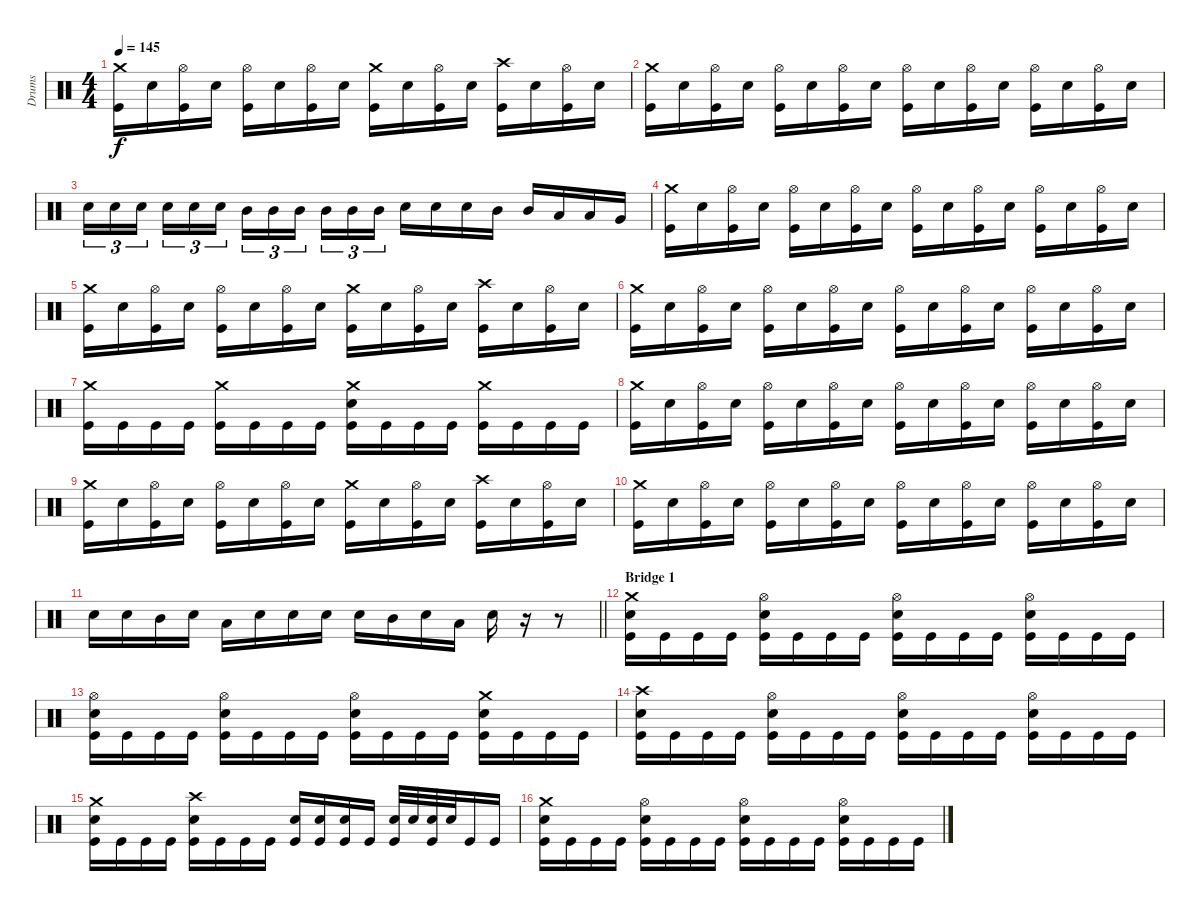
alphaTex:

\track ("Drums" "Drums") {instrument percussion}
\staff {score}
\articulation defaults
\ts (4 4)
\tempo 145
\clef neutral
\ks c
("Crash medium (hit)" "Kick (hit)").16{dy f} "Snare (hit) 2".16 ("Hi-Hat (open)" "Kick (hit)").16 "Snare (hit) 2".16 ("Hi-Hat (open)" "Kick (hit)").16 "Snare (hit) 2".16 ("Hi-Hat (open)" "Kick (hit)").16 "Snare (hit) 2".16 ("Crash medium (hit)" "Kick (hit)").16 "Snare (hit) 2".16 ("Hi-Hat (open)" "Kick (hit)").16 "Snare (hit) 2".16 ("Crash high (hit)" "Kick (hit)").16 "Snare (hit) 2".16 ("Hi-Hat (open)" "Kick (hit)").16 "Snare (hit) 2".16 |
("Crash medium (hit)" "Kick (hit)").16 "Snare (hit) 2".16 ("Hi-Hat (open)" "Kick (hit)").16 "Snare (hit) 2".16 ("Hi-Hat (open)" "Kick (hit)").16 "Snare (hit) 2".16 ("Hi-Hat (open)" "Kick (hit)").16 "Snare (hit) 2".16 ("Hi-Hat (open)" "Kick (hit)").16 "Snare (hit) 2".16 ("Hi-Hat (open)" "Kick (hit)").16 "Snare (hit) 2".16 ("Hi-Hat (open)" "Kick (hit)").16 "Snare (hit) 2".16 ("Hi-Hat (open)" "Kick (hit)").16 "Snare (hit) 2".16 |
"Snare (hit) 2".16{tu (3 2)} "Snare (hit) 2".16{tu (3 2)} "Snare (hit) 2".16{tu (3 2) beam splitsecondary} "Snare (hit) 2".16{tu (3 2)} "Snare (hit) 2".16{tu (3 2)} "Snare (hit) 2".16{tu (3 2)} "Mid Tom (hit)".16{tu (3 2)} "Mid Tom (hit)".16{tu (3 2)} "Mid Tom (hit)".16{tu (3 2) beam splitsecondary} "Mid Tom (hit)".16{tu (3 2)} "Mid Tom (hit)".16{tu (3 2)} "Mid Tom (hit)".16{tu (3 2)} "Snare (hit) 2".16 "Snare (hit) 2".16 "Snare (hit) 2".16 "Mid Tom (hit)".16 "Mid Tom (hit)".16 "Low Tom (hit)".16 "Low Tom (hit)".16 "Very Low Tom (hit)".16 |
("Crash medium (hit)" "Kick (hit)").16 "Snare (hit) 2".16 ("Hi-Hat (open)" "Kick (hit)").16 "Snare (hit) 2".16 ("Hi-Hat (open)" "Kick (hit)").16 "Snare (hit) 2".16 ("Hi-Hat (open)" "Kick (hit)").16 "Snare (hit) 2".16 ("Hi-Hat (open)" "Kick (hit)").16 "Snare (hit) 2".16 ("Hi-Hat (open)" "Kick (hit)").16 "Snare (hit) 2".16 ("Hi-Hat (open)" "Kick (hit)").16 "Snare (hit) 2".16 ("Hi-Hat (open)" "Kick (hit)").16 "Snare (hit) 2".16 |
("Crash medium (hit)" "Kick (hit)").16 "Snare (hit) 2".16 ("Hi-Hat (open)" "Kick (hit)").16 "Snare (hit) 2".16 ("Hi-Hat (open)" "Kick (hit)").16 "Snare (hit) 2".16 ("Hi-Hat (open)" "Kick (hit)").16 "Snare (hit) 2".16 ("Crash medium (hit)" "Kick (hit)").16 "Snare (hit) 2".16 ("Hi-Hat (open)" "Kick (hit)").16 "Snare (hit) 2".16 ("Crash high (hit)" "Kick (hit)").16 "Snare (hit) 2".16 ("Hi-Hat (open)" "Kick (hit)").16 "Snare (hit) 2".16 |
("Crash medium (hit)" "Kick (hit)").16 "Snare (hit) 2".16 ("Hi-Hat (open)" "Kick (hit)").16 "Snare (hit) 2".16 ("Hi-Hat (open)" "Kick (hit)").16 "Snare (hit) 2".16 ("Hi-Hat (open)" "Kick (hit)").16 "Snare (hit) 2".16 ("Hi-Hat (open)" "Kick (hit)").16 "Snare (hit) 2".16 ("Hi-Hat (open)" "Kick (hit)").16 "Snare (hit) 2".16 ("Hi-Hat (open)" "Kick (hit)").16 "Snare (hit) 2".16 ("Hi-Hat (open)" "Kick (hit)").16 "Snare (hit) 2".16 |
("Crash medium (hit)" "Kick (hit)").16 "Kick (hit)".16 "Kick (hit)".16 "Kick (hit)".16 ("Crash medium (hit)" "Kick (hit)").16 "Kick (hit)".16 "Kick (hit)".16 "Kick (hit)".16 ("Crash medium (hit)" "Snare (hit) 2" "Kick (hit)").16 "Kick (hit)".16 "Kick (hit)".16 "Kick (hit)".16 ("Crash medium (hit)" "Kick (hit)").16 "Kick (hit)".16 "Kick (hit)".16 "Kick (hit)".16 |
("Crash medium (hit)" "Kick (hit)").16 "Snare (hit) 2".16 ("Hi-Hat (open)" "Kick (hit)").16 "Snare (hit) 2".16 ("Hi-Hat (open)" "Kick (hit)").16 "Snare (hit) 2".16 ("Hi-Hat (open)" "Kick (hit)").16 "Snare (hit) 2".16 ("Hi-Hat (open)" "Kick (hit)").16 "Snare (hit) 2".16 ("Hi-Hat (open)" "Kick (hit)").16 "Snare (hit) 2".16 ("Hi-Hat (open)" "Kick (hit)").16 "Snare (hit) 2".16 ("Hi-Hat (open)" "Kick (hit)").16 "Snare (hit) 2".16 |
("Crash medium (hit)" "Kick (hit)").16 "Snare (hit) 2".16 ("Hi-Hat (open)" "Kick (hit)").16 "Snare (hit) 2".16 ("Hi-Hat (open)" "Kick (hit)").16 "Snare (hit) 2".16 ("Hi-Hat (open)" "Kick (hit)").16 "Snare (hit) 2".16 ("Crash medium (hit)" "Kick (hit)").16 "Snare (hit) 2".16 ("Hi-Hat (open)" "Kick (hit)").16 "Snare (hit) 2".16 ("Crash high (hit)" "Kick (hit)").16 "Snare (hit) 2".16 ("Hi-Hat (open)" "Kick (hit)").16 "Snare (hit) 2".16 |
("Crash medium (hit)" "Kick (hit)").16 "Snare (hit) 2".16 ("Hi-Hat (open)" "Kick (hit)").16 "Snare (hit) 2".16 ("Hi-Hat (open)" "Kick (hit)").16 "Snare (hit) 2".16 ("Hi-Hat (open)" "Kick (hit)").16 "Snare (hit) 2".16 ("Hi-Hat (open)" "Kick (hit)").16 "Snare (hit) 2".16 ("Hi-Hat (open)" "Kick (hit)").16 "Snare (hit) 2".16 ("Hi-Hat (open)" "Kick (hit)").16 "Snare (hit) 2".16 ("Hi-Hat (open)" "Kick (hit)").16 "Snare (hit) 2".16 |
\barLineRight lightlight "Snare (hit) 2".16 "Snare (hit) 2".16 "Mid Tom (hit)".16 "Snare (hit) 2".16 "Low Tom (hit)".16 "Snare (hit) 2".16 "Snare (hit) 2".16 "Snare (hit) 2".16 "Snare (hit) 2".16 "Mid Tom (hit)".16 "Snare (hit) 2".16 "Low Tom (hit)".16 "Snare (hit) 2".16
r.16 r.8 |
\section ("" "Bridge 1")
("Crash medium (hit)" "Snare (hit) 2" "Kick (hit)").16 "Kick (hit)".16 "Kick (hit)".16 "Kick (hit)".16 ("Hi-Hat (open)" "Snare (hit) 2" "Kick (hit)").16 "Kick (hit)".16 "Kick (hit)".16 "Kick (hit)".16 ("Hi-Hat (open)" "Snare (hit) 2" "Kick (hit)").16 "Kick (hit)".16 "Kick (hit)".16 "Kick (hit)".16 ("Hi-Hat (open)" "Snare (hit) 2" "Kick (hit)").16 "Kick (hit)".16 "Kick (hit)".16 "Kick (hit)".16 |
("Hi-Hat (open)" "Snare (hit) 2" "Kick (hit)").16 "Kick (hit)".16 "Kick (hit)".16 "Kick (hit)".16 ("Hi-Hat (open)" "Snare (hit) 2" "Kick (hit)").16 "Kick (hit)".16 "Kick (hit)".16 "Kick (hit)".16 ("Hi-Hat (open)" "Snare (hit) 2" "Kick (hit)").16 "Kick (hit)".16 "Kick (hit)".16 "Kick (hit)".16 ("Crash medium (hit)" "Snare (hit) 2" "Kick (hit)").16 "Kick (hit)".16 "Kick (hit)".16 "Kick (hit)".16 |
("Crash high (hit)" "Snare (hit) 2" "Kick (hit)").16 "Kick (hit)".16 "Kick (hit)".16 "Kick (hit)".16 ("Hi-Hat (open)" "Snare (hit) 2" "Kick (hit)").16 "Kick (hit)".16 "Kick (hit)".16 "Kick (hit)".16 ("Hi-Hat (open)" "Snare (hit) 2" "Kick (hit)").16 "Kick (hit)".16 "Kick (hit)".16 "Kick (hit)".16 ("Hi-Hat (open)" "Snare (hit) 2" "Kick (hit)").16 "Kick (hit)".16 "Kick (hit)".16 "Kick (hit)".16 |
("Crash medium (hit)" "Snare (hit) 2" "Kick (hit)").16 "Kick (hit)".16 "Kick (hit)".16 "Kick (hit)".16 ("Crash high (hit)" "Snare (hit) 2" "Kick (hit)").16 "Kick (hit)".16 "Kick (hit)".16 "Kick (hit)".16 ("Snare (hit) 2" "Kick (hit)").16 ("Snare (hit) 2" "Kick (hit)").16 ("Snare (hit) 2" "Kick (hit)").16 "Kick (hit)".16 ("Snare (hit) 2" "Kick (hit)").32 "Snare (hit) 2".32 ("Snare (hit) 2" "Kick (hit)").32 "Snare (hit) 2".32 "Kick (hit)".16 "Kick (hit)".16 |
("Crash medium (hit)" "Snare (hit) 2" "Kick (hit)").16 "Kick (hit)".16 "Kick (hit)".16 "Kick (hit)".16 ("Hi-Hat (open)" "Snare (hit) 2" "Kick (hit)").16 "Kick (hit)".16 "Kick (hit)".16 "Kick (hit)".16 ("Hi-Hat (open)" "Snare (hit) 2" "Kick (hit)").16 "Kick (hit)".16 "Kick (hit)".16 "Kick (hit)".16 ("Hi-Hat (open)" "Snare (hit) 2" "Kick (hit)").16 "Kick (hit)".16 "Kick (hit)".16 "Kick (hit)".16
